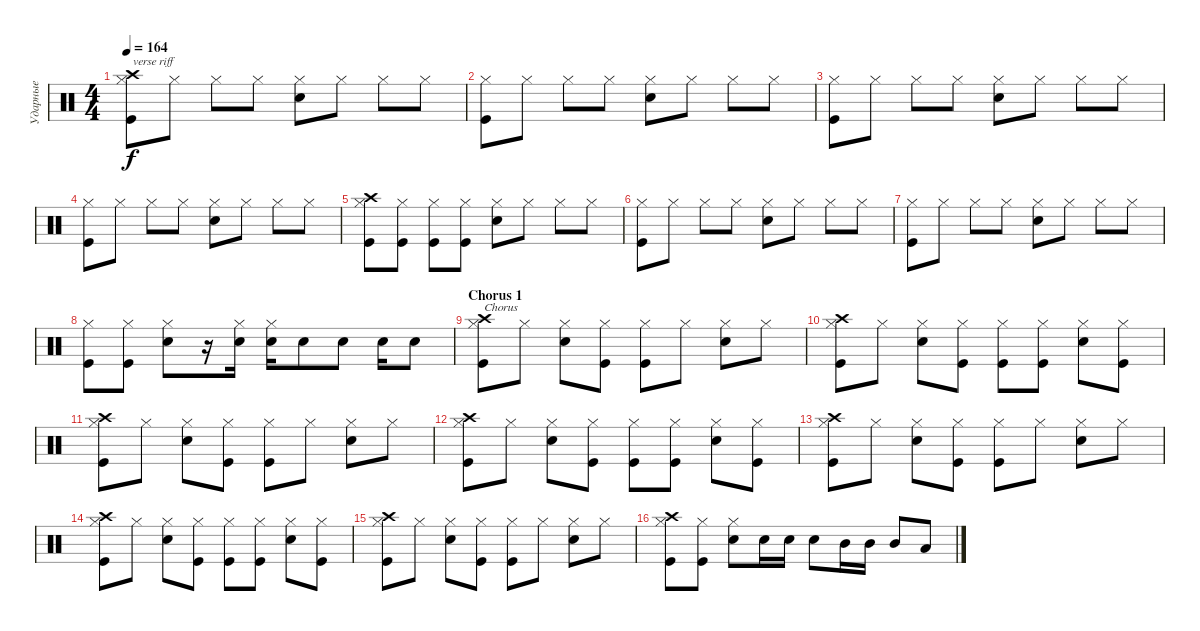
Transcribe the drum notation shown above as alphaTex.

\track ("Ударные" "Ударные") {instrument percussion}
\staff {score}
\articulation defaults
\ts (4 4)
\tempo 164
\clef neutral
\ks c
("Hi-Hat (closed)" "Crash high (hit)" "Kick (hit)").8{txt "verse riff" dy f} "Hi-Hat (closed)".8 "Hi-Hat (closed)".8 "Hi-Hat (closed)".8 ("Hi-Hat (closed)" "Snare (hit) 2").8 "Hi-Hat (closed)".8 "Hi-Hat (closed)".8 "Hi-Hat (closed)".8 |
("Hi-Hat (closed)" "Kick (hit)").8 "Hi-Hat (closed)".8 "Hi-Hat (closed)".8 "Hi-Hat (closed)".8 ("Hi-Hat (closed)" "Snare (hit) 2").8 "Hi-Hat (closed)".8 "Hi-Hat (closed)".8 "Hi-Hat (closed)".8 |
("Hi-Hat (closed)" "Kick (hit)").8 "Hi-Hat (closed)".8 "Hi-Hat (closed)".8 "Hi-Hat (closed)".8 ("Hi-Hat (closed)" "Snare (hit) 2").8 "Hi-Hat (closed)".8 "Hi-Hat (closed)".8 "Hi-Hat (closed)".8 |
("Hi-Hat (closed)" "Kick (hit)").8 "Hi-Hat (closed)".8 "Hi-Hat (closed)".8 "Hi-Hat (closed)".8 ("Hi-Hat (closed)" "Snare (hit) 2").8 "Hi-Hat (closed)".8 "Hi-Hat (closed)".8 "Hi-Hat (closed)".8 |
("Hi-Hat (closed)" "Crash high (hit)" "Kick (hit)").8 ("Hi-Hat (closed)" "Kick (hit)").8 ("Hi-Hat (closed)" "Kick (hit)").8 ("Hi-Hat (closed)" "Kick (hit)").8 ("Hi-Hat (closed)" "Snare (hit) 2").8 "Hi-Hat (closed)".8 "Hi-Hat (closed)".8 "Hi-Hat (closed)".8 |
("Hi-Hat (closed)" "Kick (hit)").8 "Hi-Hat (closed)".8 "Hi-Hat (closed)".8 "Hi-Hat (closed)".8 ("Hi-Hat (closed)" "Snare (hit) 2").8 "Hi-Hat (closed)".8 "Hi-Hat (closed)".8 "Hi-Hat (closed)".8 |
("Hi-Hat (closed)" "Kick (hit)").8 "Hi-Hat (closed)".8 "Hi-Hat (closed)".8 "Hi-Hat (closed)".8 ("Hi-Hat (closed)" "Snare (hit) 2").8 "Hi-Hat (closed)".8 "Hi-Hat (closed)".8 "Hi-Hat (closed)".8 |
("Hi-Hat (closed)" "Kick (hit)").8 ("Hi-Hat (closed)" "Kick (hit)").8 ("Hi-Hat (closed)" "Snare (hit) 2").8 r.16 ("Hi-Hat (closed)" "Snare (hit) 2").16 ("Hi-Hat (closed)" "Snare (hit) 2").16 "Snare (hit) 2".8 "Snare (hit) 2".8 "Snare (hit) 2".16 "Snare (hit) 2".8 |
\section ("" "Chorus 1")
("Hi-Hat (closed)" "Crash high (hit)" "Kick (hit)").8{txt "Chorus"} "Hi-Hat (closed)".8 ("Hi-Hat (closed)" "Snare (hit) 2").8 ("Hi-Hat (closed)" "Kick (hit)").8 ("Hi-Hat (closed)" "Kick (hit)").8 "Hi-Hat (closed)".8 ("Hi-Hat (closed)" "Snare (hit) 2").8 "Hi-Hat (closed)".8 |
("Hi-Hat (closed)" "Crash high (hit)" "Kick (hit)").8 "Hi-Hat (closed)".8 ("Hi-Hat (closed)" "Snare (hit) 2").8 ("Hi-Hat (closed)" "Kick (hit)").8 ("Hi-Hat (closed)" "Kick (hit)").8 ("Hi-Hat (closed)" "Kick (hit)").8 ("Hi-Hat (closed)" "Snare (hit) 2").8 ("Hi-Hat (closed)" "Kick (hit)").8 |
("Hi-Hat (closed)" "Crash high (hit)" "Kick (hit)").8 "Hi-Hat (closed)".8 ("Hi-Hat (closed)" "Snare (hit) 2").8 ("Hi-Hat (closed)" "Kick (hit)").8 ("Hi-Hat (closed)" "Kick (hit)").8 "Hi-Hat (closed)".8 ("Hi-Hat (closed)" "Snare (hit) 2").8 "Hi-Hat (closed)".8 |
("Hi-Hat (closed)" "Crash high (hit)" "Kick (hit)").8 "Hi-Hat (closed)".8 ("Hi-Hat (closed)" "Snare (hit) 2").8 ("Hi-Hat (closed)" "Kick (hit)").8 ("Hi-Hat (closed)" "Kick (hit)").8 ("Hi-Hat (closed)" "Kick (hit)").8 ("Hi-Hat (closed)" "Snare (hit) 2").8 ("Hi-Hat (closed)" "Kick (hit)").8 |
("Hi-Hat (closed)" "Crash high (hit)" "Kick (hit)").8 "Hi-Hat (closed)".8 ("Hi-Hat (closed)" "Snare (hit) 2").8 ("Hi-Hat (closed)" "Kick (hit)").8 ("Hi-Hat (closed)" "Kick (hit)").8 "Hi-Hat (closed)".8 ("Hi-Hat (closed)" "Snare (hit) 2").8 "Hi-Hat (closed)".8 |
("Hi-Hat (closed)" "Crash high (hit)" "Kick (hit)").8 "Hi-Hat (closed)".8 ("Hi-Hat (closed)" "Snare (hit) 2").8 ("Hi-Hat (closed)" "Kick (hit)").8 ("Hi-Hat (closed)" "Kick (hit)").8 ("Hi-Hat (closed)" "Kick (hit)").8 ("Hi-Hat (closed)" "Snare (hit) 2").8 ("Hi-Hat (closed)" "Kick (hit)").8 |
("Hi-Hat (closed)" "Crash high (hit)" "Kick (hit)").8 "Hi-Hat (closed)".8 ("Hi-Hat (closed)" "Snare (hit) 2").8 ("Hi-Hat (closed)" "Kick (hit)").8 ("Hi-Hat (closed)" "Kick (hit)").8 "Hi-Hat (closed)".8 ("Hi-Hat (closed)" "Snare (hit) 2").8 "Hi-Hat (closed)".8 |
("Hi-Hat (closed)" "Crash high (hit)" "Kick (hit)").8 ("Hi-Hat (closed)" "Kick (hit)").8 ("Hi-Hat (closed)" "Snare (hit) 2").8 "Snare (hit) 2".16 "Snare (hit) 2".16 "Snare (hit) 2".8 "Mid Tom (hit)".16 "Mid Tom (hit)".16 "Mid Tom (hit)".8 "Low Floor Tom (hit)".8
